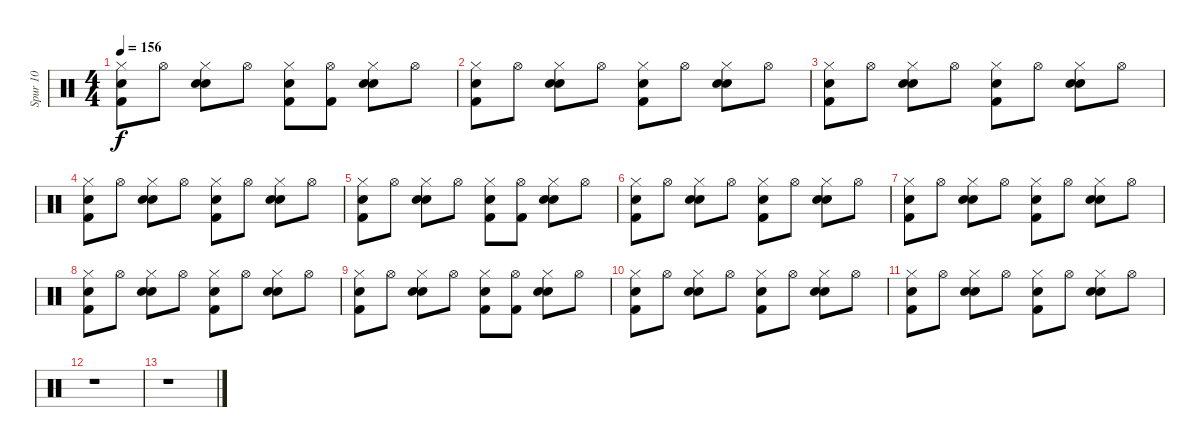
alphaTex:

\track ("Spur 10" "Spur 10") {instrument percussion}
\staff {score}
\articulation defaults
\ts (4 4)
\tempo 156
\clef neutral
\ks c
("Hi-Hat (closed)" "Kick (hit) 2" "Hand Clap (hit)").8{dy f} "Hi-Hat (open)".8 ("Hi-Hat (closed)" "Electric Snare (hit)" "Hand Clap (hit)").8 "Hi-Hat (open)".8 ("Hi-Hat (closed)" "Kick (hit) 2" "Hand Clap (hit)").8 ("Hi-Hat (open)" "Kick (hit) 2").8 ("Hi-Hat (closed)" "Electric Snare (hit)" "Hand Clap (hit)").8 "Hi-Hat (open)".8 |
("Hi-Hat (closed)" "Kick (hit) 2" "Hand Clap (hit)").8 "Hi-Hat (open)".8 ("Hi-Hat (closed)" "Electric Snare (hit)" "Hand Clap (hit)").8 "Hi-Hat (open)".8 ("Hi-Hat (closed)" "Kick (hit) 2" "Hand Clap (hit)").8 "Hi-Hat (open)".8 ("Hi-Hat (closed)" "Electric Snare (hit)" "Hand Clap (hit)").8 "Hi-Hat (open)".8 |
("Hi-Hat (closed)" "Kick (hit) 2" "Hand Clap (hit)").8 "Hi-Hat (open)".8 ("Hi-Hat (closed)" "Electric Snare (hit)" "Hand Clap (hit)").8 "Hi-Hat (open)".8 ("Hi-Hat (closed)" "Kick (hit) 2" "Hand Clap (hit)").8 "Hi-Hat (open)".8 ("Hi-Hat (closed)" "Electric Snare (hit)" "Hand Clap (hit)").8 "Hi-Hat (open)".8 |
("Hi-Hat (closed)" "Kick (hit) 2" "Hand Clap (hit)").8 "Hi-Hat (open)".8 ("Hi-Hat (closed)" "Electric Snare (hit)" "Hand Clap (hit)").8 "Hi-Hat (open)".8 ("Hi-Hat (closed)" "Kick (hit) 2" "Hand Clap (hit)").8 "Hi-Hat (open)".8 ("Hi-Hat (closed)" "Electric Snare (hit)" "Hand Clap (hit)").8 "Hi-Hat (open)".8 |
("Hi-Hat (closed)" "Kick (hit) 2" "Hand Clap (hit)").8 "Hi-Hat (open)".8 ("Hi-Hat (closed)" "Electric Snare (hit)" "Hand Clap (hit)").8 "Hi-Hat (open)".8 ("Hi-Hat (closed)" "Kick (hit) 2" "Hand Clap (hit)").8 ("Hi-Hat (open)" "Kick (hit) 2").8 ("Hi-Hat (closed)" "Electric Snare (hit)" "Hand Clap (hit)").8 "Hi-Hat (open)".8 |
("Hi-Hat (closed)" "Kick (hit) 2" "Hand Clap (hit)").8 "Hi-Hat (open)".8 ("Hi-Hat (closed)" "Electric Snare (hit)" "Hand Clap (hit)").8 "Hi-Hat (open)".8 ("Hi-Hat (closed)" "Kick (hit) 2" "Hand Clap (hit)").8 "Hi-Hat (open)".8 ("Hi-Hat (closed)" "Electric Snare (hit)" "Hand Clap (hit)").8 "Hi-Hat (open)".8 |
("Hi-Hat (closed)" "Kick (hit) 2" "Hand Clap (hit)").8 "Hi-Hat (open)".8 ("Hi-Hat (closed)" "Electric Snare (hit)" "Hand Clap (hit)").8 "Hi-Hat (open)".8 ("Hi-Hat (closed)" "Kick (hit) 2" "Hand Clap (hit)").8 "Hi-Hat (open)".8 ("Hi-Hat (closed)" "Electric Snare (hit)" "Hand Clap (hit)").8 "Hi-Hat (open)".8 |
("Hi-Hat (closed)" "Kick (hit) 2" "Hand Clap (hit)").8 "Hi-Hat (open)".8 ("Hi-Hat (closed)" "Electric Snare (hit)" "Hand Clap (hit)").8 "Hi-Hat (open)".8 ("Hi-Hat (closed)" "Kick (hit) 2" "Hand Clap (hit)").8 "Hi-Hat (open)".8 ("Hi-Hat (closed)" "Electric Snare (hit)" "Hand Clap (hit)").8 "Hi-Hat (open)".8 |
("Hi-Hat (closed)" "Kick (hit) 2" "Hand Clap (hit)").8 "Hi-Hat (open)".8 ("Hi-Hat (closed)" "Electric Snare (hit)" "Hand Clap (hit)").8 "Hi-Hat (open)".8 ("Hi-Hat (closed)" "Kick (hit) 2" "Hand Clap (hit)").8 ("Hi-Hat (open)" "Kick (hit) 2").8 ("Hi-Hat (closed)" "Electric Snare (hit)" "Hand Clap (hit)").8 "Hi-Hat (open)".8 |
("Hi-Hat (closed)" "Kick (hit) 2" "Hand Clap (hit)").8 "Hi-Hat (open)".8 ("Hi-Hat (closed)" "Electric Snare (hit)" "Hand Clap (hit)").8 "Hi-Hat (open)".8 ("Hi-Hat (closed)" "Kick (hit) 2" "Hand Clap (hit)").8 "Hi-Hat (open)".8 ("Hi-Hat (closed)" "Electric Snare (hit)" "Hand Clap (hit)").8 "Hi-Hat (open)".8 |
("Hi-Hat (closed)" "Kick (hit) 2" "Hand Clap (hit)").8 "Hi-Hat (open)".8 ("Hi-Hat (closed)" "Electric Snare (hit)" "Hand Clap (hit)").8 "Hi-Hat (open)".8 ("Hi-Hat (closed)" "Kick (hit) 2" "Hand Clap (hit)").8 "Hi-Hat (open)".8 ("Hi-Hat (closed)" "Electric Snare (hit)" "Hand Clap (hit)").8 "Hi-Hat (open)".8 |
r.1 |
r.1
